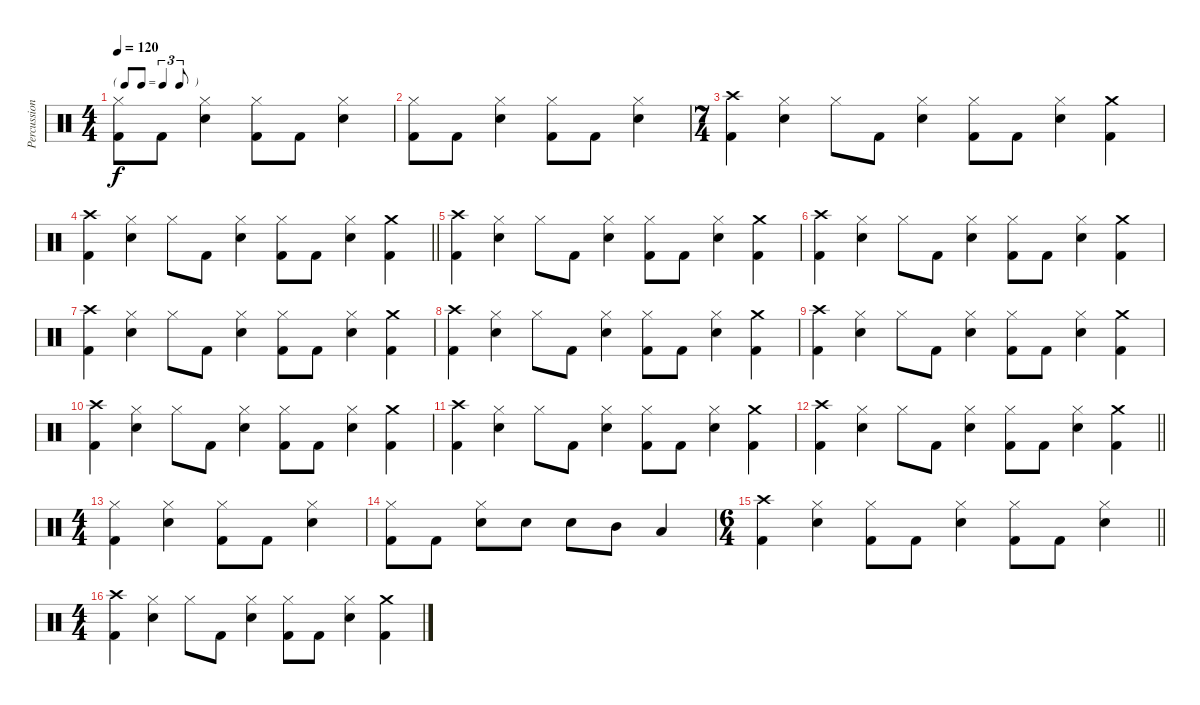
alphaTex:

\track ("Percussion" "Percussion") {instrument percussion}
\staff {score}
\articulation defaults
\ts (4 4)
\tf triplet8th
\tempo 120
\clef neutral
\ks c
("Hi-Hat (closed)" "Kick (hit) 2").8{dy f} "Kick (hit) 2".8 ("Hi-Hat (closed)" "Electric Snare (hit)").4 ("Hi-Hat (closed)" "Kick (hit) 2").8 "Kick (hit) 2".8 ("Hi-Hat (closed)" "Electric Snare (hit)").4 |
("Hi-Hat (closed)" "Kick (hit) 2").8 "Kick (hit) 2".8 ("Hi-Hat (closed)" "Electric Snare (hit)").4 ("Hi-Hat (closed)" "Kick (hit) 2").8 "Kick (hit) 2".8 ("Hi-Hat (closed)" "Electric Snare (hit)").4 |
\ts (7 4)
("Crash high (hit)" "Kick (hit) 2").4 ("Hi-Hat (closed)" "Electric Snare (hit)").4 "Hi-Hat (closed)".8 "Kick (hit) 2".8 ("Hi-Hat (closed)" "Electric Snare (hit)").4 ("Hi-Hat (closed)" "Kick (hit) 2").8 "Kick (hit) 2".8 ("Hi-Hat (closed)" "Electric Snare (hit)").4 ("Crash medium (hit)" "Kick (hit) 2").4 |
\barLineRight lightlight
("Crash high (hit)" "Kick (hit) 2").4 ("Hi-Hat (closed)" "Electric Snare (hit)").4 "Hi-Hat (closed)".8 "Kick (hit) 2".8 ("Hi-Hat (closed)" "Electric Snare (hit)").4 ("Hi-Hat (closed)" "Kick (hit) 2").8 "Kick (hit) 2".8 ("Hi-Hat (closed)" "Electric Snare (hit)").4 ("Crash medium (hit)" "Kick (hit) 2").4 |
("Crash high (hit)" "Kick (hit) 2").4 ("Hi-Hat (closed)" "Electric Snare (hit)").4 "Hi-Hat (closed)".8 "Kick (hit) 2".8 ("Hi-Hat (closed)" "Electric Snare (hit)").4 ("Hi-Hat (closed)" "Kick (hit) 2").8 "Kick (hit) 2".8 ("Hi-Hat (closed)" "Electric Snare (hit)").4 ("Crash medium (hit)" "Kick (hit) 2").4 |
("Crash high (hit)" "Kick (hit) 2").4 ("Hi-Hat (closed)" "Electric Snare (hit)").4 "Hi-Hat (closed)".8 "Kick (hit) 2".8 ("Hi-Hat (closed)" "Electric Snare (hit)").4 ("Hi-Hat (closed)" "Kick (hit) 2").8 "Kick (hit) 2".8 ("Hi-Hat (closed)" "Electric Snare (hit)").4 ("Crash medium (hit)" "Kick (hit) 2").4 |
("Crash high (hit)" "Kick (hit) 2").4 ("Hi-Hat (closed)" "Electric Snare (hit)").4 "Hi-Hat (closed)".8 "Kick (hit) 2".8 ("Hi-Hat (closed)" "Electric Snare (hit)").4 ("Hi-Hat (closed)" "Kick (hit) 2").8 "Kick (hit) 2".8 ("Hi-Hat (closed)" "Electric Snare (hit)").4 ("Crash medium (hit)" "Kick (hit) 2").4 |
("Crash high (hit)" "Kick (hit) 2").4 ("Hi-Hat (closed)" "Electric Snare (hit)").4 "Hi-Hat (closed)".8 "Kick (hit) 2".8 ("Hi-Hat (closed)" "Electric Snare (hit)").4 ("Hi-Hat (closed)" "Kick (hit) 2").8 "Kick (hit) 2".8 ("Hi-Hat (closed)" "Electric Snare (hit)").4 ("Crash medium (hit)" "Kick (hit) 2").4 |
("Crash high (hit)" "Kick (hit) 2").4 ("Hi-Hat (closed)" "Electric Snare (hit)").4 "Hi-Hat (closed)".8 "Kick (hit) 2".8 ("Hi-Hat (closed)" "Electric Snare (hit)").4 ("Hi-Hat (closed)" "Kick (hit) 2").8 "Kick (hit) 2".8 ("Hi-Hat (closed)" "Electric Snare (hit)").4 ("Crash medium (hit)" "Kick (hit) 2").4 |
("Crash high (hit)" "Kick (hit) 2").4 ("Hi-Hat (closed)" "Electric Snare (hit)").4 "Hi-Hat (closed)".8 "Kick (hit) 2".8 ("Hi-Hat (closed)" "Electric Snare (hit)").4 ("Hi-Hat (closed)" "Kick (hit) 2").8 "Kick (hit) 2".8 ("Hi-Hat (closed)" "Electric Snare (hit)").4 ("Crash medium (hit)" "Kick (hit) 2").4 |
("Crash high (hit)" "Kick (hit) 2").4 ("Hi-Hat (closed)" "Electric Snare (hit)").4 "Hi-Hat (closed)".8 "Kick (hit) 2".8 ("Hi-Hat (closed)" "Electric Snare (hit)").4 ("Hi-Hat (closed)" "Kick (hit) 2").8 "Kick (hit) 2".8 ("Hi-Hat (closed)" "Electric Snare (hit)").4 ("Crash medium (hit)" "Kick (hit) 2").4 |
\barLineRight lightlight
("Crash high (hit)" "Kick (hit) 2").4 ("Hi-Hat (closed)" "Electric Snare (hit)").4 "Hi-Hat (closed)".8 "Kick (hit) 2".8 ("Hi-Hat (closed)" "Electric Snare (hit)").4 ("Hi-Hat (closed)" "Kick (hit) 2").8 "Kick (hit) 2".8 ("Hi-Hat (closed)" "Electric Snare (hit)").4 ("Crash medium (hit)" "Kick (hit) 2").4 |
\ts (4 4)
("Hi-Hat (closed)" "Kick (hit) 2").4 ("Hi-Hat (closed)" "Electric Snare (hit)").4 ("Hi-Hat (closed)" "Kick (hit) 2").8 "Kick (hit) 2".8 ("Hi-Hat (closed)" "Electric Snare (hit)").4 |
("Hi-Hat (closed)" "Kick (hit) 2").8 "Kick (hit) 2".8 ("Hi-Hat (closed)" "Electric Snare (hit)").8 "Electric Snare (hit)".8 "Electric Snare (hit)".8 "Mid Tom (hit)".8 "Low Tom (hit)".4 |
\ts (6 4)
\barLineRight lightlight
("Crash high (hit)" "Kick (hit) 2").4 ("Hi-Hat (closed)" "Electric Snare (hit)").4 ("Hi-Hat (closed)" "Kick (hit) 2").8 "Kick (hit) 2".8 ("Hi-Hat (closed)" "Electric Snare (hit)").4 ("Hi-Hat (closed)" "Kick (hit) 2").8 "Kick (hit) 2".8 ("Hi-Hat (closed)" "Electric Snare (hit)").4 |
\ts (4 4)
("Crash high (hit)" "Kick (hit) 2").4 ("Hi-Hat (closed)" "Electric Snare (hit)").4 "Hi-Hat (closed)".8 "Kick (hit) 2".8 ("Hi-Hat (closed)" "Electric Snare (hit)").4 ("Hi-Hat (closed)" "Kick (hit) 2").8 "Kick (hit) 2".8 ("Hi-Hat (closed)" "Electric Snare (hit)").4 ("Crash medium (hit)" "Kick (hit) 2").4
